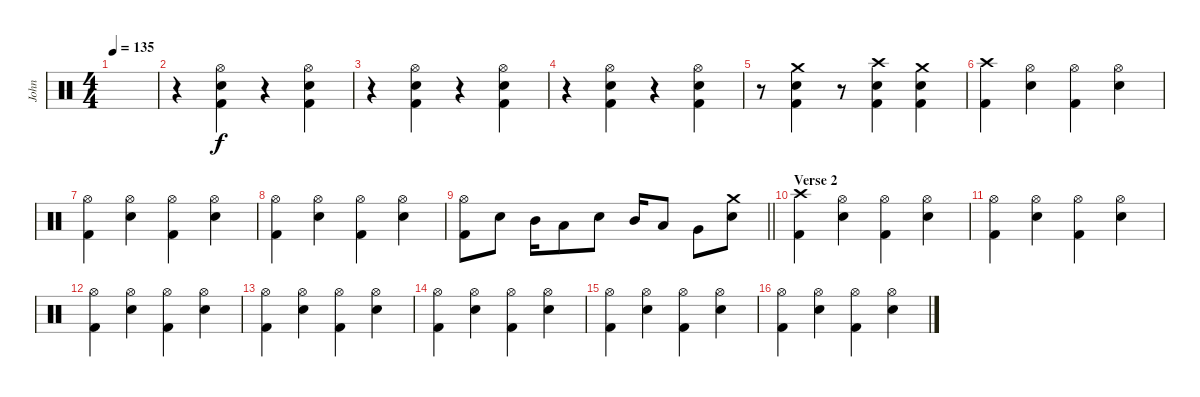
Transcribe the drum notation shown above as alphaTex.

\track ("John" "John") {instrument percussion}
\staff {score}
\articulation defaults
\ts (4 4)
\tempo 135
\clef neutral
\ks c
|
r.4 ("Hi-Hat (open)" "Electric Snare (hit)" "Kick (hit) 2").4 r.4 ("Hi-Hat (open)" "Electric Snare (hit)" "Kick (hit) 2").4 |
r.4 ("Hi-Hat (open)" "Electric Snare (hit)" "Kick (hit) 2").4 r.4 ("Hi-Hat (open)" "Electric Snare (hit)" "Kick (hit) 2").4 |
r.4 ("Hi-Hat (open)" "Electric Snare (hit)" "Kick (hit) 2").4 r.4 ("Hi-Hat (open)" "Electric Snare (hit)" "Kick (hit) 2").4 |
r.8 ("Crash medium (hit)" "Electric Snare (hit)" "Kick (hit) 2").4 r.8 ("Crash high (hit)" "Electric Snare (hit)" "Kick (hit) 2").4 ("Crash medium (hit)" "Electric Snare (hit)" "Kick (hit) 2").4 |
("Crash high (hit)" "Kick (hit) 2").4 ("Hi-Hat (open)" "Electric Snare (hit)").4 ("Hi-Hat (open)" "Kick (hit) 2").4 ("Hi-Hat (open)" "Electric Snare (hit)").4 |
("Hi-Hat (open)" "Kick (hit) 2").4 ("Hi-Hat (open)" "Electric Snare (hit)").4 ("Hi-Hat (open)" "Kick (hit) 2").4 ("Hi-Hat (open)" "Electric Snare (hit)").4 |
("Hi-Hat (open)" "Kick (hit) 2").4 ("Hi-Hat (open)" "Electric Snare (hit)").4 ("Hi-Hat (open)" "Kick (hit) 2").4 ("Hi-Hat (open)" "Electric Snare (hit)").4 |
\barLineRight lightlight
("Hi-Hat (open)" "Kick (hit) 2").8 "Electric Snare (hit)".8 "Mid Tom (hit)".16 "Low Tom (hit)".8 "Electric Snare (hit)".8 "Mid Tom (hit)".16 "Low Tom (hit)".8 "Very Low Tom (hit)".8 ("Crash medium (hit)" "Electric Snare (hit)").8 |
\section ("" "Verse 2")
("Crash high (hit)" "Kick (hit) 2").4 ("Hi-Hat (open)" "Electric Snare (hit)").4 ("Hi-Hat (open)" "Kick (hit) 2").4 ("Hi-Hat (open)" "Electric Snare (hit)").4 |
("Hi-Hat (open)" "Kick (hit) 2").4 ("Hi-Hat (open)" "Electric Snare (hit)").4 ("Hi-Hat (open)" "Kick (hit) 2").4 ("Hi-Hat (open)" "Electric Snare (hit)").4 |
("Hi-Hat (open)" "Kick (hit) 2").4 ("Hi-Hat (open)" "Electric Snare (hit)").4 ("Hi-Hat (open)" "Kick (hit) 2").4 ("Hi-Hat (open)" "Electric Snare (hit)").4 |
("Hi-Hat (open)" "Kick (hit) 2").4 ("Hi-Hat (open)" "Electric Snare (hit)").4 ("Hi-Hat (open)" "Kick (hit) 2").4 ("Hi-Hat (open)" "Electric Snare (hit)").4 |
("Hi-Hat (open)" "Kick (hit) 2").4 ("Hi-Hat (open)" "Electric Snare (hit)").4 ("Hi-Hat (open)" "Kick (hit) 2").4 ("Hi-Hat (open)" "Electric Snare (hit)").4 |
("Hi-Hat (open)" "Kick (hit) 2").4 ("Hi-Hat (open)" "Electric Snare (hit)").4 ("Hi-Hat (open)" "Kick (hit) 2").4 ("Hi-Hat (open)" "Electric Snare (hit)").4 |
("Hi-Hat (open)" "Kick (hit) 2").4 ("Hi-Hat (open)" "Electric Snare (hit)").4 ("Hi-Hat (open)" "Kick (hit) 2").4 ("Hi-Hat (open)" "Electric Snare (hit)").4
